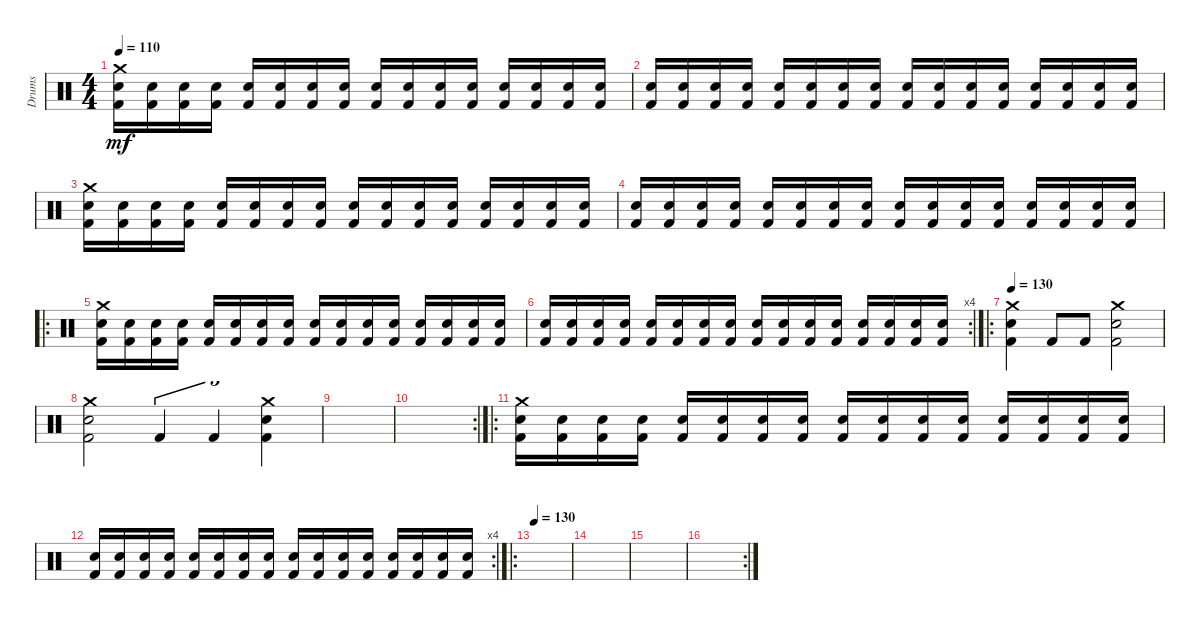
\track ("Drums" "Drums") {instrument percussion}
\staff {score}
\articulation defaults
\ts (4 4)
\tempo 110
\clef neutral
\ks c
("Kick (hit) 2" "Snare (hit) 2" "Crash medium (hit)").16{dy mf} ("Kick (hit) 2" "Snare (hit) 2").16 ("Kick (hit) 2" "Snare (hit) 2").16 ("Kick (hit) 2" "Snare (hit) 2").16 ("Kick (hit) 2" "Snare (hit) 2").16 ("Kick (hit) 2" "Snare (hit) 2").16 ("Kick (hit) 2" "Snare (hit) 2").16 ("Kick (hit) 2" "Snare (hit) 2").16 ("Kick (hit) 2" "Snare (hit) 2").16 ("Kick (hit) 2" "Snare (hit) 2").16 ("Kick (hit) 2" "Snare (hit) 2").16 ("Kick (hit) 2" "Snare (hit) 2").16 ("Kick (hit) 2" "Snare (hit) 2").16 ("Kick (hit) 2" "Snare (hit) 2").16 ("Kick (hit) 2" "Snare (hit) 2").16 ("Kick (hit) 2" "Snare (hit) 2").16 |
("Kick (hit) 2" "Snare (hit) 2").16 ("Kick (hit) 2" "Snare (hit) 2").16 ("Kick (hit) 2" "Snare (hit) 2").16 ("Kick (hit) 2" "Snare (hit) 2").16 ("Kick (hit) 2" "Snare (hit) 2").16 ("Kick (hit) 2" "Snare (hit) 2").16 ("Kick (hit) 2" "Snare (hit) 2").16 ("Kick (hit) 2" "Snare (hit) 2").16 ("Kick (hit) 2" "Snare (hit) 2").16 ("Kick (hit) 2" "Snare (hit) 2").16 ("Kick (hit) 2" "Snare (hit) 2").16 ("Kick (hit) 2" "Snare (hit) 2").16 ("Kick (hit) 2" "Snare (hit) 2").16 ("Kick (hit) 2" "Snare (hit) 2").16 ("Kick (hit) 2" "Snare (hit) 2").16 ("Kick (hit) 2" "Snare (hit) 2").16 |
("Kick (hit) 2" "Snare (hit) 2" "Crash medium (hit)").16 ("Kick (hit) 2" "Snare (hit) 2").16 ("Kick (hit) 2" "Snare (hit) 2").16 ("Kick (hit) 2" "Snare (hit) 2").16 ("Kick (hit) 2" "Snare (hit) 2").16 ("Kick (hit) 2" "Snare (hit) 2").16 ("Kick (hit) 2" "Snare (hit) 2").16 ("Kick (hit) 2" "Snare (hit) 2").16 ("Kick (hit) 2" "Snare (hit) 2").16 ("Kick (hit) 2" "Snare (hit) 2").16 ("Kick (hit) 2" "Snare (hit) 2").16 ("Kick (hit) 2" "Snare (hit) 2").16 ("Kick (hit) 2" "Snare (hit) 2").16 ("Kick (hit) 2" "Snare (hit) 2").16 ("Kick (hit) 2" "Snare (hit) 2").16 ("Kick (hit) 2" "Snare (hit) 2").16 |
("Kick (hit) 2" "Snare (hit) 2").16 ("Kick (hit) 2" "Snare (hit) 2").16 ("Kick (hit) 2" "Snare (hit) 2").16 ("Kick (hit) 2" "Snare (hit) 2").16 ("Kick (hit) 2" "Snare (hit) 2").16 ("Kick (hit) 2" "Snare (hit) 2").16 ("Kick (hit) 2" "Snare (hit) 2").16 ("Kick (hit) 2" "Snare (hit) 2").16 ("Kick (hit) 2" "Snare (hit) 2").16 ("Kick (hit) 2" "Snare (hit) 2").16 ("Kick (hit) 2" "Snare (hit) 2").16 ("Kick (hit) 2" "Snare (hit) 2").16 ("Kick (hit) 2" "Snare (hit) 2").16 ("Kick (hit) 2" "Snare (hit) 2").16 ("Kick (hit) 2" "Snare (hit) 2").16 ("Kick (hit) 2" "Snare (hit) 2").16 |
\ro
("Kick (hit) 2" "Snare (hit) 2" "Crash medium (hit)").16 ("Kick (hit) 2" "Snare (hit) 2").16 ("Kick (hit) 2" "Snare (hit) 2").16 ("Kick (hit) 2" "Snare (hit) 2").16 ("Kick (hit) 2" "Snare (hit) 2").16 ("Kick (hit) 2" "Snare (hit) 2").16 ("Kick (hit) 2" "Snare (hit) 2").16 ("Kick (hit) 2" "Snare (hit) 2").16 ("Kick (hit) 2" "Snare (hit) 2").16 ("Kick (hit) 2" "Snare (hit) 2").16 ("Kick (hit) 2" "Snare (hit) 2").16 ("Kick (hit) 2" "Snare (hit) 2").16 ("Kick (hit) 2" "Snare (hit) 2").16 ("Kick (hit) 2" "Snare (hit) 2").16 ("Kick (hit) 2" "Snare (hit) 2").16 ("Kick (hit) 2" "Snare (hit) 2").16 |
\rc 4
("Kick (hit) 2" "Snare (hit) 2").16 ("Kick (hit) 2" "Snare (hit) 2").16 ("Kick (hit) 2" "Snare (hit) 2").16 ("Kick (hit) 2" "Snare (hit) 2").16 ("Kick (hit) 2" "Snare (hit) 2").16 ("Kick (hit) 2" "Snare (hit) 2").16 ("Kick (hit) 2" "Snare (hit) 2").16 ("Kick (hit) 2" "Snare (hit) 2").16 ("Kick (hit) 2" "Snare (hit) 2").16 ("Kick (hit) 2" "Snare (hit) 2").16 ("Kick (hit) 2" "Snare (hit) 2").16 ("Kick (hit) 2" "Snare (hit) 2").16 ("Kick (hit) 2" "Snare (hit) 2").16 ("Kick (hit) 2" "Snare (hit) 2").16 ("Kick (hit) 2" "Snare (hit) 2").16 ("Kick (hit) 2" "Snare (hit) 2").16 |
\ro
\tempo 130
("Kick (hit) 2" "Snare (hit) 2" "Crash medium (hit)").4 "Kick (hit) 2".8 "Kick (hit) 2".8 ("Kick (hit) 2" "Snare (hit) 2" "Crash medium (hit)").2 |
("Kick (hit) 2" "Snare (hit) 2" "Crash medium (hit)").2 "Kick (hit) 2".4{tu (3 2)} "Kick (hit) 2".4{tu (3 2)} ("Kick (hit) 2" "Snare (hit) 2" "Crash medium (hit)").4{tu (3 2)} |
|
\rc 2
|
\ro
("Kick (hit) 2" "Snare (hit) 2" "Crash medium (hit)").16 ("Kick (hit) 2" "Snare (hit) 2").16 ("Kick (hit) 2" "Snare (hit) 2").16 ("Kick (hit) 2" "Snare (hit) 2").16 ("Kick (hit) 2" "Snare (hit) 2").16 ("Kick (hit) 2" "Snare (hit) 2").16 ("Kick (hit) 2" "Snare (hit) 2").16 ("Kick (hit) 2" "Snare (hit) 2").16 ("Kick (hit) 2" "Snare (hit) 2").16 ("Kick (hit) 2" "Snare (hit) 2").16 ("Kick (hit) 2" "Snare (hit) 2").16 ("Kick (hit) 2" "Snare (hit) 2").16 ("Kick (hit) 2" "Snare (hit) 2").16 ("Kick (hit) 2" "Snare (hit) 2").16 ("Kick (hit) 2" "Snare (hit) 2").16 ("Kick (hit) 2" "Snare (hit) 2").16 |
\rc 4
("Kick (hit) 2" "Snare (hit) 2").16 ("Kick (hit) 2" "Snare (hit) 2").16 ("Kick (hit) 2" "Snare (hit) 2").16 ("Kick (hit) 2" "Snare (hit) 2").16 ("Kick (hit) 2" "Snare (hit) 2").16 ("Kick (hit) 2" "Snare (hit) 2").16 ("Kick (hit) 2" "Snare (hit) 2").16 ("Kick (hit) 2" "Snare (hit) 2").16 ("Kick (hit) 2" "Snare (hit) 2").16 ("Kick (hit) 2" "Snare (hit) 2").16 ("Kick (hit) 2" "Snare (hit) 2").16 ("Kick (hit) 2" "Snare (hit) 2").16 ("Kick (hit) 2" "Snare (hit) 2").16 ("Kick (hit) 2" "Snare (hit) 2").16 ("Kick (hit) 2" "Snare (hit) 2").16 ("Kick (hit) 2" "Snare (hit) 2").16 |
\ro
\tempo 130
|
|
|
\rc 2
